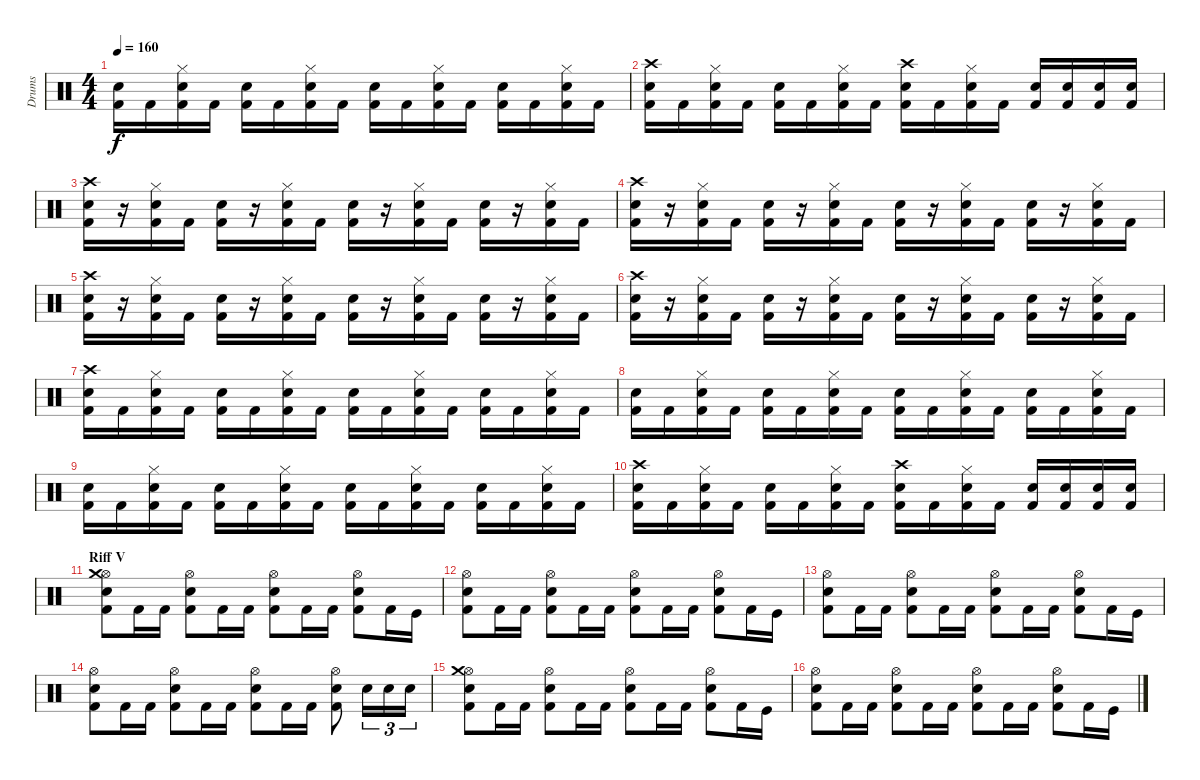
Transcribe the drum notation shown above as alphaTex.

\track ("Drums" "Drums") {instrument percussion}
\staff {score}
\articulation defaults
\ts (4 4)
\tempo 160
\clef neutral
\ks c
("Kick (hit) 2" "Snare (hit) 2").16{dy f} "Kick (hit) 2".16 ("Kick (hit) 2" "Snare (hit) 2" "Hi-Hat (closed)").16 "Kick (hit) 2".16 ("Kick (hit) 2" "Snare (hit) 2").16 "Kick (hit) 2".16 ("Kick (hit) 2" "Snare (hit) 2" "Hi-Hat (closed)").16 "Kick (hit) 2".16 ("Kick (hit) 2" "Snare (hit) 2").16 "Kick (hit) 2".16 ("Kick (hit) 2" "Snare (hit) 2" "Hi-Hat (closed)").16 "Kick (hit) 2".16 ("Kick (hit) 2" "Snare (hit) 2").16 "Kick (hit) 2".16 ("Kick (hit) 2" "Snare (hit) 2" "Hi-Hat (closed)").16 "Kick (hit) 2".16 |
("Kick (hit) 2" "Snare (hit) 2" "Crash high (hit)").16 "Kick (hit) 2".16 ("Kick (hit) 2" "Snare (hit) 2" "Hi-Hat (closed)").16 "Kick (hit) 2".16 ("Kick (hit) 2" "Snare (hit) 2").16 "Kick (hit) 2".16 ("Kick (hit) 2" "Snare (hit) 2" "Hi-Hat (closed)").16 "Kick (hit) 2".16 ("Kick (hit) 2" "Snare (hit) 2" "Crash high (hit)").16 "Kick (hit) 2".16 ("Kick (hit) 2" "Snare (hit) 2" "Hi-Hat (closed)").16 "Kick (hit) 2".16 ("Kick (hit) 2" "Snare (hit) 2").16 ("Kick (hit) 2" "Snare (hit) 2").16 ("Kick (hit) 2" "Snare (hit) 2").16 ("Kick (hit) 2" "Snare (hit) 2").16 |
("Kick (hit) 2" "Snare (hit) 2" "Crash high (hit)").16 r.16 ("Kick (hit) 2" "Snare (hit) 2" "Hi-Hat (closed)").16 "Kick (hit) 2".16 ("Kick (hit) 2" "Snare (hit) 2").16 r.16 ("Kick (hit) 2" "Snare (hit) 2" "Hi-Hat (closed)").16 "Kick (hit) 2".16 ("Kick (hit) 2" "Snare (hit) 2").16 r.16 ("Kick (hit) 2" "Snare (hit) 2" "Hi-Hat (closed)").16 "Kick (hit) 2".16 ("Kick (hit) 2" "Snare (hit) 2").16 r.16 ("Kick (hit) 2" "Snare (hit) 2" "Hi-Hat (closed)").16 "Kick (hit) 2".16 |
("Kick (hit) 2" "Snare (hit) 2" "Crash high (hit)").16 r.16 ("Kick (hit) 2" "Snare (hit) 2" "Hi-Hat (closed)").16 "Kick (hit) 2".16 ("Kick (hit) 2" "Snare (hit) 2").16 r.16 ("Kick (hit) 2" "Snare (hit) 2" "Hi-Hat (closed)").16 "Kick (hit) 2".16 ("Kick (hit) 2" "Snare (hit) 2").16 r.16 ("Kick (hit) 2" "Snare (hit) 2" "Hi-Hat (closed)").16 "Kick (hit) 2".16 ("Kick (hit) 2" "Snare (hit) 2").16 r.16 ("Kick (hit) 2" "Snare (hit) 2" "Hi-Hat (closed)").16 "Kick (hit) 2".16 |
("Kick (hit) 2" "Snare (hit) 2" "Crash high (hit)").16 r.16 ("Kick (hit) 2" "Snare (hit) 2" "Hi-Hat (closed)").16 "Kick (hit) 2".16 ("Kick (hit) 2" "Snare (hit) 2").16 r.16 ("Kick (hit) 2" "Snare (hit) 2" "Hi-Hat (closed)").16 "Kick (hit) 2".16 ("Kick (hit) 2" "Snare (hit) 2").16 r.16 ("Kick (hit) 2" "Snare (hit) 2" "Hi-Hat (closed)").16 "Kick (hit) 2".16 ("Kick (hit) 2" "Snare (hit) 2").16 r.16 ("Kick (hit) 2" "Snare (hit) 2" "Hi-Hat (closed)").16 "Kick (hit) 2".16 |
("Kick (hit) 2" "Snare (hit) 2" "Crash high (hit)").16 r.16 ("Kick (hit) 2" "Snare (hit) 2" "Hi-Hat (closed)").16 "Kick (hit) 2".16 ("Kick (hit) 2" "Snare (hit) 2").16 r.16 ("Kick (hit) 2" "Snare (hit) 2" "Hi-Hat (closed)").16 "Kick (hit) 2".16 ("Kick (hit) 2" "Snare (hit) 2").16 r.16 ("Kick (hit) 2" "Snare (hit) 2" "Hi-Hat (closed)").16 "Kick (hit) 2".16 ("Kick (hit) 2" "Snare (hit) 2").16 r.16 ("Kick (hit) 2" "Snare (hit) 2" "Hi-Hat (closed)").16 "Kick (hit) 2".16 |
("Kick (hit) 2" "Snare (hit) 2" "Crash high (hit)").16 "Kick (hit) 2".16 ("Kick (hit) 2" "Snare (hit) 2" "Hi-Hat (closed)").16 "Kick (hit) 2".16 ("Kick (hit) 2" "Snare (hit) 2").16 "Kick (hit) 2".16 ("Kick (hit) 2" "Snare (hit) 2" "Hi-Hat (closed)").16 "Kick (hit) 2".16 ("Kick (hit) 2" "Snare (hit) 2").16 "Kick (hit) 2".16 ("Kick (hit) 2" "Snare (hit) 2" "Hi-Hat (closed)").16 "Kick (hit) 2".16 ("Kick (hit) 2" "Snare (hit) 2").16 "Kick (hit) 2".16 ("Kick (hit) 2" "Snare (hit) 2" "Hi-Hat (closed)").16 "Kick (hit) 2".16 |
("Kick (hit) 2" "Snare (hit) 2").16 "Kick (hit) 2".16 ("Kick (hit) 2" "Snare (hit) 2" "Hi-Hat (closed)").16 "Kick (hit) 2".16 ("Kick (hit) 2" "Snare (hit) 2").16 "Kick (hit) 2".16 ("Kick (hit) 2" "Snare (hit) 2" "Hi-Hat (closed)").16 "Kick (hit) 2".16 ("Kick (hit) 2" "Snare (hit) 2").16 "Kick (hit) 2".16 ("Kick (hit) 2" "Snare (hit) 2" "Hi-Hat (closed)").16 "Kick (hit) 2".16 ("Kick (hit) 2" "Snare (hit) 2").16 "Kick (hit) 2".16 ("Kick (hit) 2" "Snare (hit) 2" "Hi-Hat (closed)").16 "Kick (hit) 2".16 |
("Kick (hit) 2" "Snare (hit) 2").16 "Kick (hit) 2".16 ("Kick (hit) 2" "Snare (hit) 2" "Hi-Hat (closed)").16 "Kick (hit) 2".16 ("Kick (hit) 2" "Snare (hit) 2").16 "Kick (hit) 2".16 ("Kick (hit) 2" "Snare (hit) 2" "Hi-Hat (closed)").16 "Kick (hit) 2".16 ("Kick (hit) 2" "Snare (hit) 2").16 "Kick (hit) 2".16 ("Kick (hit) 2" "Snare (hit) 2" "Hi-Hat (closed)").16 "Kick (hit) 2".16 ("Kick (hit) 2" "Snare (hit) 2").16 "Kick (hit) 2".16 ("Kick (hit) 2" "Snare (hit) 2" "Hi-Hat (closed)").16 "Kick (hit) 2".16 |
("Kick (hit) 2" "Snare (hit) 2" "Crash high (hit)").16 "Kick (hit) 2".16 ("Kick (hit) 2" "Snare (hit) 2" "Hi-Hat (closed)").16 "Kick (hit) 2".16 ("Kick (hit) 2" "Snare (hit) 2").16 "Kick (hit) 2".16 ("Kick (hit) 2" "Snare (hit) 2" "Hi-Hat (closed)").16 "Kick (hit) 2".16 ("Kick (hit) 2" "Snare (hit) 2" "Crash high (hit)").16 "Kick (hit) 2".16 ("Kick (hit) 2" "Snare (hit) 2" "Hi-Hat (closed)").16 "Kick (hit) 2".16 ("Kick (hit) 2" "Snare (hit) 2").16 ("Kick (hit) 2" "Snare (hit) 2").16 ("Kick (hit) 2" "Snare (hit) 2").16 ("Kick (hit) 2" "Snare (hit) 2").16 |
\section ("" "Riff V")
("Kick (hit) 2" "Snare (hit) 2" "Hi-Hat (open)" "Crash medium (hit)").8 "Kick (hit) 2".16 "Kick (hit) 2".16 ("Kick (hit) 2" "Snare (hit) 2" "Hi-Hat (open)").8 "Kick (hit) 2".16 "Kick (hit) 2".16 ("Kick (hit) 2" "Snare (hit) 2" "Hi-Hat (open)").8 "Kick (hit) 2".16 "Kick (hit) 2".16 ("Kick (hit) 2" "Snare (hit) 2" "Hi-Hat (open)").8 "Kick (hit) 2".16 "Kick (hit)".16 |
("Kick (hit) 2" "Snare (hit) 2" "Hi-Hat (open)").8 "Kick (hit) 2".16 "Kick (hit) 2".16 ("Kick (hit) 2" "Snare (hit) 2" "Hi-Hat (open)").8 "Kick (hit) 2".16 "Kick (hit) 2".16 ("Kick (hit) 2" "Snare (hit) 2" "Hi-Hat (open)").8 "Kick (hit) 2".16 "Kick (hit) 2".16 ("Kick (hit) 2" "Snare (hit) 2" "Hi-Hat (open)").8 "Kick (hit) 2".16 "Kick (hit)".16 |
("Kick (hit) 2" "Snare (hit) 2" "Hi-Hat (open)").8 "Kick (hit) 2".16 "Kick (hit) 2".16 ("Kick (hit) 2" "Snare (hit) 2" "Hi-Hat (open)").8 "Kick (hit) 2".16 "Kick (hit) 2".16 ("Kick (hit) 2" "Snare (hit) 2" "Hi-Hat (open)").8 "Kick (hit) 2".16 "Kick (hit) 2".16 ("Kick (hit) 2" "Snare (hit) 2" "Hi-Hat (open)").8 "Kick (hit) 2".16 "Kick (hit)".16 |
("Kick (hit) 2" "Snare (hit) 2" "Hi-Hat (open)").8 "Kick (hit) 2".16 "Kick (hit) 2".16 ("Kick (hit) 2" "Snare (hit) 2" "Hi-Hat (open)").8 "Kick (hit) 2".16 "Kick (hit) 2".16 ("Kick (hit) 2" "Snare (hit) 2" "Hi-Hat (open)").8 "Kick (hit) 2".16 "Kick (hit) 2".16 ("Kick (hit) 2" "Snare (hit) 2" "Hi-Hat (open)").8 "Snare (hit) 2".16{tu (3 2)} "Snare (hit) 2".16{tu (3 2)} "Snare (hit) 2".16{tu (3 2)} |
("Kick (hit) 2" "Snare (hit) 2" "Hi-Hat (open)" "Crash medium (hit)").8 "Kick (hit) 2".16 "Kick (hit) 2".16 ("Kick (hit) 2" "Snare (hit) 2" "Hi-Hat (open)").8 "Kick (hit) 2".16 "Kick (hit) 2".16 ("Kick (hit) 2" "Snare (hit) 2" "Hi-Hat (open)").8 "Kick (hit) 2".16 "Kick (hit) 2".16 ("Kick (hit) 2" "Snare (hit) 2" "Hi-Hat (open)").8 "Kick (hit) 2".16 "Kick (hit)".16 |
("Kick (hit) 2" "Snare (hit) 2" "Hi-Hat (open)").8 "Kick (hit) 2".16 "Kick (hit) 2".16 ("Kick (hit) 2" "Snare (hit) 2" "Hi-Hat (open)").8 "Kick (hit) 2".16 "Kick (hit) 2".16 ("Kick (hit) 2" "Snare (hit) 2" "Hi-Hat (open)").8 "Kick (hit) 2".16 "Kick (hit) 2".16 ("Kick (hit) 2" "Snare (hit) 2" "Hi-Hat (open)").8 "Kick (hit) 2".16 "Kick (hit)".16
